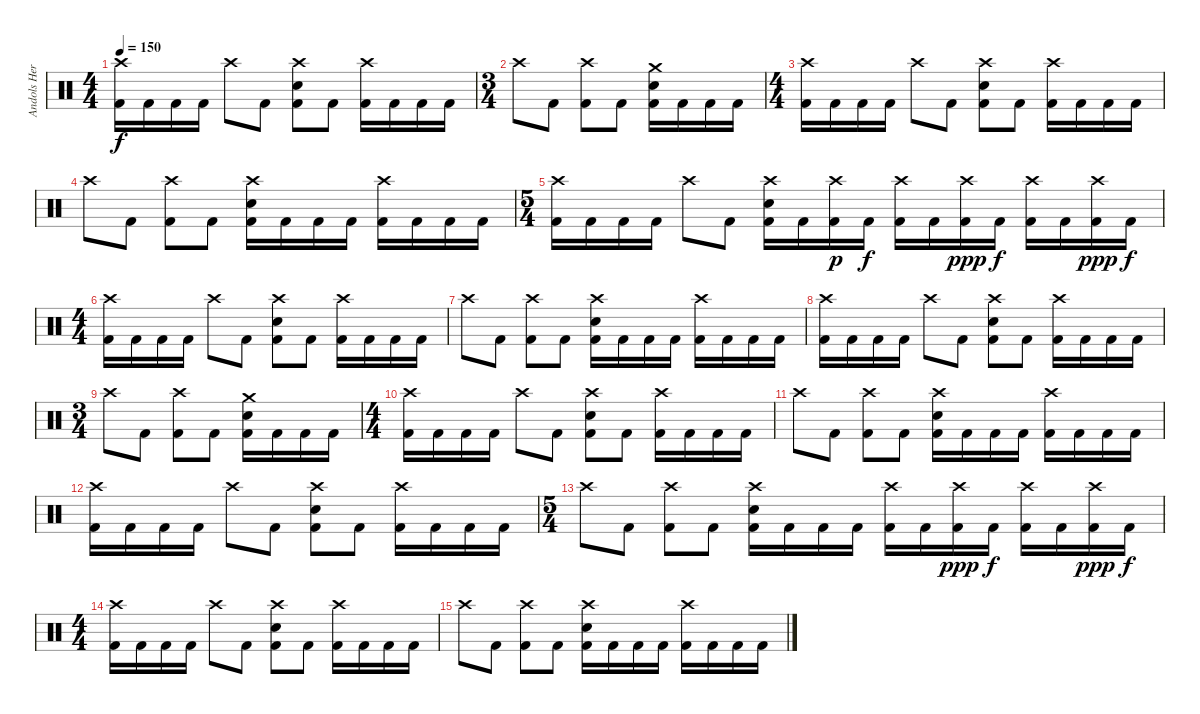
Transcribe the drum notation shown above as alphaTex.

\track ("Andols Herrick" "Andols Her") {instrument percussion}
\staff {score}
\articulation defaults
\ts (4 4)
\tempo 150
\clef neutral
\ks c
("Crash high (hit)" "Kick (hit) 2").16{dy f} "Kick (hit) 2".16 "Kick (hit) 2".16 "Kick (hit) 2".16 "Crash high (hit)".8 "Kick (hit) 2".8 ("Crash high (hit)" "Electric Snare (hit)" "Kick (hit) 2").8 "Kick (hit) 2".8 ("Crash high (hit)" "Kick (hit) 2").16 "Kick (hit) 2".16 "Kick (hit) 2".16 "Kick (hit) 2".16 |
\ts (3 4)
"Crash high (hit)".8 "Kick (hit) 2".8 ("Crash high (hit)" "Kick (hit) 2").8 "Kick (hit) 2".8 ("Crash medium (hit)" "Electric Snare (hit)" "Kick (hit) 2").16 "Kick (hit) 2".16 "Kick (hit) 2".16 "Kick (hit) 2".16 |
\ts (4 4)
("Crash high (hit)" "Kick (hit) 2").16 "Kick (hit) 2".16 "Kick (hit) 2".16 "Kick (hit) 2".16 "Crash high (hit)".8 "Kick (hit) 2".8 ("Crash high (hit)" "Electric Snare (hit)" "Kick (hit) 2").8 "Kick (hit) 2".8 ("Crash high (hit)" "Kick (hit) 2").16 "Kick (hit) 2".16 "Kick (hit) 2".16 "Kick (hit) 2".16 |
"Crash high (hit)".8 "Kick (hit) 2".8 ("Crash high (hit)" "Kick (hit) 2").8 "Kick (hit) 2".8 ("Crash high (hit)" "Electric Snare (hit)" "Kick (hit) 2").16 "Kick (hit) 2".16 "Kick (hit) 2".16 "Kick (hit) 2".16 ("Crash high (hit)" "Kick (hit) 2").16 "Kick (hit) 2".16 "Kick (hit) 2".16 "Kick (hit) 2".16 |
\ts (5 4)
("Crash high (hit)" "Kick (hit) 2").16 "Kick (hit) 2".16 "Kick (hit) 2".16 "Kick (hit) 2".16 "Crash high (hit)".8 "Kick (hit) 2".8 ("Crash high (hit)" "Electric Snare (hit)" "Kick (hit) 2").16 "Kick (hit) 2".16 ("Crash high (hit)" "Kick (hit) 2").16{dy p} "Kick (hit) 2".16{dy f} ("Crash high (hit)" "Kick (hit) 2").16 "Kick (hit) 2".16 ("Crash high (hit)" "Kick (hit) 2").16{dy ppp} "Kick (hit) 2".16{dy f} ("Crash high (hit)" "Kick (hit) 2").16 "Kick (hit) 2".16 ("Crash high (hit)" "Kick (hit) 2").16{dy ppp} "Kick (hit) 2".16{dy f} |
\ts (4 4)
("Crash high (hit)" "Kick (hit) 2").16 "Kick (hit) 2".16 "Kick (hit) 2".16 "Kick (hit) 2".16 "Crash high (hit)".8 "Kick (hit) 2".8 ("Crash high (hit)" "Electric Snare (hit)" "Kick (hit) 2").8 "Kick (hit) 2".8 ("Crash high (hit)" "Kick (hit) 2").16 "Kick (hit) 2".16 "Kick (hit) 2".16 "Kick (hit) 2".16 |
"Crash high (hit)".8 "Kick (hit) 2".8 ("Crash high (hit)" "Kick (hit) 2").8 "Kick (hit) 2".8 ("Crash high (hit)" "Electric Snare (hit)" "Kick (hit) 2").16 "Kick (hit) 2".16 "Kick (hit) 2".16 "Kick (hit) 2".16 ("Crash high (hit)" "Kick (hit) 2").16 "Kick (hit) 2".16 "Kick (hit) 2".16 "Kick (hit) 2".16 |
("Crash high (hit)" "Kick (hit) 2").16 "Kick (hit) 2".16 "Kick (hit) 2".16 "Kick (hit) 2".16 "Crash high (hit)".8 "Kick (hit) 2".8 ("Crash high (hit)" "Electric Snare (hit)" "Kick (hit) 2").8 "Kick (hit) 2".8 ("Crash high (hit)" "Kick (hit) 2").16 "Kick (hit) 2".16 "Kick (hit) 2".16 "Kick (hit) 2".16 |
\ts (3 4)
"Crash high (hit)".8 "Kick (hit) 2".8 ("Crash high (hit)" "Kick (hit) 2").8 "Kick (hit) 2".8 ("Crash medium (hit)" "Electric Snare (hit)" "Kick (hit) 2").16 "Kick (hit) 2".16 "Kick (hit) 2".16 "Kick (hit) 2".16 |
\ts (4 4)
("Crash high (hit)" "Kick (hit) 2").16 "Kick (hit) 2".16 "Kick (hit) 2".16 "Kick (hit) 2".16 "Crash high (hit)".8 "Kick (hit) 2".8 ("Crash high (hit)" "Electric Snare (hit)" "Kick (hit) 2").8 "Kick (hit) 2".8 ("Crash high (hit)" "Kick (hit) 2").16 "Kick (hit) 2".16 "Kick (hit) 2".16 "Kick (hit) 2".16 |
"Crash high (hit)".8 "Kick (hit) 2".8 ("Crash high (hit)" "Kick (hit) 2").8 "Kick (hit) 2".8 ("Crash high (hit)" "Electric Snare (hit)" "Kick (hit) 2").16 "Kick (hit) 2".16 "Kick (hit) 2".16 "Kick (hit) 2".16 ("Crash high (hit)" "Kick (hit) 2").16 "Kick (hit) 2".16 "Kick (hit) 2".16 "Kick (hit) 2".16 |
("Crash high (hit)" "Kick (hit) 2").16 "Kick (hit) 2".16 "Kick (hit) 2".16 "Kick (hit) 2".16 "Crash high (hit)".8 "Kick (hit) 2".8 ("Crash high (hit)" "Electric Snare (hit)" "Kick (hit) 2").8 "Kick (hit) 2".8 ("Crash high (hit)" "Kick (hit) 2").16 "Kick (hit) 2".16 "Kick (hit) 2".16 "Kick (hit) 2".16 |
\ts (5 4)
"Crash high (hit)".8 "Kick (hit) 2".8 ("Crash high (hit)" "Kick (hit) 2").8 "Kick (hit) 2".8 ("Crash high (hit)" "Electric Snare (hit)" "Kick (hit) 2").16 "Kick (hit) 2".16 "Kick (hit) 2".16 "Kick (hit) 2".16 ("Crash high (hit)" "Kick (hit) 2").16 "Kick (hit) 2".16 ("Crash high (hit)" "Kick (hit) 2").16{dy ppp} "Kick (hit) 2".16{dy f} ("Crash high (hit)" "Kick (hit) 2").16 "Kick (hit) 2".16 ("Crash high (hit)" "Kick (hit) 2").16{dy ppp} "Kick (hit) 2".16{dy f} |
\ts (4 4)
("Crash high (hit)" "Kick (hit) 2").16 "Kick (hit) 2".16 "Kick (hit) 2".16 "Kick (hit) 2".16 "Crash high (hit)".8 "Kick (hit) 2".8 ("Crash high (hit)" "Electric Snare (hit)" "Kick (hit) 2").8 "Kick (hit) 2".8 ("Crash high (hit)" "Kick (hit) 2").16 "Kick (hit) 2".16 "Kick (hit) 2".16 "Kick (hit) 2".16 |
"Crash high (hit)".8 "Kick (hit) 2".8 ("Crash high (hit)" "Kick (hit) 2").8 "Kick (hit) 2".8 ("Crash high (hit)" "Electric Snare (hit)" "Kick (hit) 2").16 "Kick (hit) 2".16 "Kick (hit) 2".16 "Kick (hit) 2".16 ("Crash high (hit)" "Kick (hit) 2").16 "Kick (hit) 2".16 "Kick (hit) 2".16 "Kick (hit) 2".16
